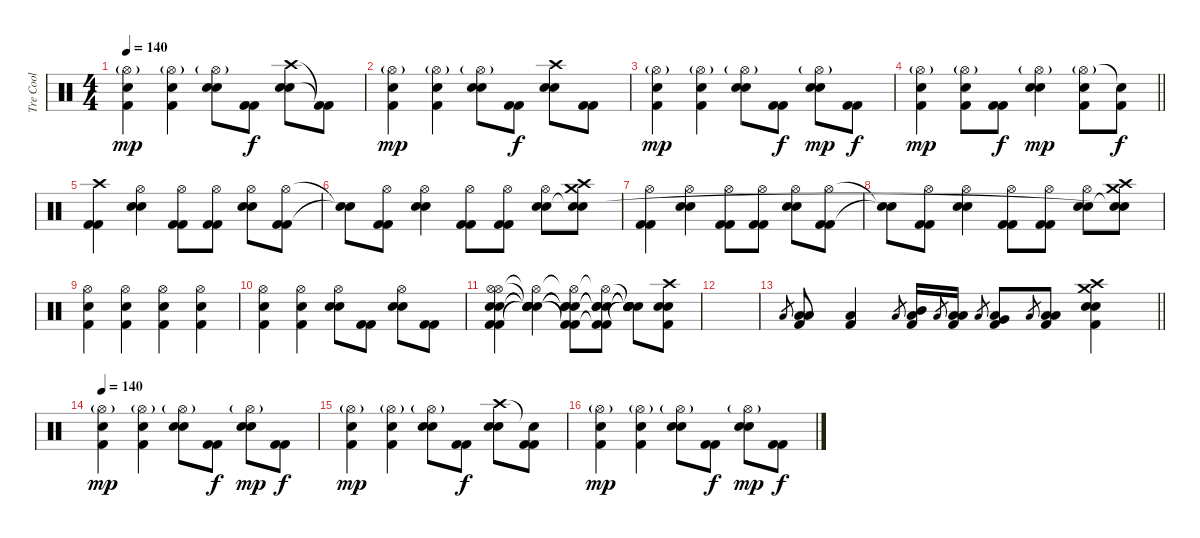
\track ("Tre Cool" "Tre Cool") {instrument percussion}
\staff {score}
\articulation defaults
\ts (4 4)
\tempo 140
\clef neutral
\ks c
("Hi-Hat (open)"{g} "Electric Snare (hit)" "Kick (hit) 2").4{dy mp} ("Hi-Hat (open)"{g} "Electric Snare (hit)" "Kick (hit) 2").4 ("Hi-Hat (open)"{g} "Electric Snare (hit)" "Electric Snare (hit)").8 ("Kick (hit) 2" "Kick (hit) 2").8{dy f} ("Crash high (hit)" "Electric Snare (hit)" "Electric Snare (hit)").8 ("Kick (hit) 2"{t} "Kick (hit) 2"{t}).8 |
("Hi-Hat (open)"{g} "Electric Snare (hit)" "Kick (hit) 2").4{dy mp} ("Hi-Hat (open)"{g} "Electric Snare (hit)" "Kick (hit) 2").4 ("Hi-Hat (open)"{g} "Electric Snare (hit)" "Electric Snare (hit)").8 ("Kick (hit) 2" "Kick (hit) 2").8{dy f} ("Crash high (hit)" "Electric Snare (hit)" "Electric Snare (hit)").8 ("Kick (hit) 2" "Kick (hit) 2").8 |
("Hi-Hat (open)"{g} "Electric Snare (hit)" "Kick (hit) 2").4{dy mp} ("Hi-Hat (open)"{g} "Electric Snare (hit)" "Kick (hit) 2").4 ("Hi-Hat (open)"{g} "Electric Snare (hit)" "Electric Snare (hit)").8 ("Kick (hit) 2" "Kick (hit) 2").8{dy f} ("Hi-Hat (open)"{g} "Electric Snare (hit)" "Electric Snare (hit)").8{dy mp} ("Kick (hit) 2" "Kick (hit) 2").8{dy f} |
\barLineRight lightlight
("Hi-Hat (open)"{g} "Electric Snare (hit)" "Kick (hit) 2").4{dy mp} ("Hi-Hat (open)"{g} "Electric Snare (hit)" "Kick (hit) 2").8 ("Kick (hit) 2" "Kick (hit) 2").8{dy f} ("Hi-Hat (open)"{g} "Electric Snare (hit)" "Electric Snare (hit)").4{dy mp} ("Hi-Hat (open)"{g} "Electric Snare (hit)"{tr (38 64)} "Kick (hit) 2").8 ("Electric Snare (hit)"{t} "Kick (hit) 2").8{dy f} |
("Crash high (hit)" "Kick (hit) 2" "Kick (hit) 2").4 ("Hi-Hat (open)" "Electric Snare (hit)" "Electric Snare (hit)").4 ("Hi-Hat (open)" "Kick (hit) 2" "Kick (hit) 2").8 ("Hi-Hat (open)" "Kick (hit) 2" "Kick (hit) 2").8 ("Hi-Hat (open)" "Electric Snare (hit)" "Electric Snare (hit)").8 ("Hi-Hat (open)" "Kick (hit) 2" "Kick (hit) 2").8 |
("Snare (hit)"{t} "Snare (hit)"{t}).8 ("Hi-Hat (open)" "Kick (hit) 2" "Kick (hit) 2").8 ("Hi-Hat (open)" "Electric Snare (hit)" "Electric Snare (hit)").4 ("Hi-Hat (open)" "Kick (hit) 2" "Kick (hit) 2").8 ("Hi-Hat (open)" "Kick (hit) 2" "Kick (hit) 2").8 ("Hi-Hat (open)" "Electric Snare (hit)" "Electric Snare (hit)").8 ("Crash high (hit)" "Crash medium (hit)" "Snare (hit)"{t} "Snare (hit)").8 |
("Hi-Hat (open)" "Kick (hit) 2" "Kick (hit) 2").4 ("Hi-Hat (open)" "Electric Snare (hit)" "Electric Snare (hit)").4 ("Hi-Hat (open)" "Kick (hit) 2" "Kick (hit) 2").8 ("Hi-Hat (open)" "Kick (hit) 2" "Kick (hit) 2").8 ("Hi-Hat (open)" "Electric Snare (hit)" "Electric Snare (hit)").8 ("Hi-Hat (open)" "Kick (hit) 2" "Kick (hit) 2").8 |
("Snare (hit)"{t} "Snare (hit)"{t}).8 ("Hi-Hat (open)" "Kick (hit) 2" "Kick (hit) 2").8 ("Hi-Hat (open)" "Electric Snare (hit)" "Electric Snare (hit)").4 ("Hi-Hat (open)" "Kick (hit) 2" "Kick (hit) 2").8 ("Hi-Hat (open)" "Kick (hit) 2" "Kick (hit) 2").8 ("Hi-Hat (open)" "Electric Snare (hit)" "Electric Snare (hit)").8 ("Crash high (hit)" "Crash medium (hit)" "Snare (hit)"{t} "Snare (hit)"{t}).8 |
("Hi-Hat (open)" "Electric Snare (hit)" "Kick (hit) 2").4 ("Hi-Hat (open)" "Electric Snare (hit)" "Kick (hit) 2").4 ("Hi-Hat (open)" "Electric Snare (hit)" "Kick (hit) 2").4 ("Hi-Hat (open)" "Electric Snare (hit)" "Kick (hit) 2").4 |
("Hi-Hat (open)" "Electric Snare (hit)" "Kick (hit) 2").4 ("Hi-Hat (open)" "Electric Snare (hit)" "Kick (hit) 2").4 ("Hi-Hat (open)" "Electric Snare (hit)" "Electric Snare (hit)").8 ("Kick (hit) 2" "Kick (hit) 2").8 ("Hi-Hat (open)" "Electric Snare (hit)" "Electric Snare (hit)").8 ("Kick (hit) 2" "Kick (hit) 2").8 |
("Hi-Hat (open)" "Hi-Hat (open)" "Electric Snare (hit)" "Electric Snare (hit)" "Kick (hit) 2" "Kick (hit) 2").4 ("Hi-Hat (open)"{t} "Snare (hit)"{t} "Snare (hit)"{t} "Snare (hit)"{t} "Electric Snare (hit)"{t} "Electric Snare (hit)"{t}).4 ("Hi-Hat (open)"{t} "Snare (hit)"{t} "Snare (hit)"{t} "Snare (hit)"{t} "Kick (hit) 2"{t} "Kick (hit) 2"{t}).8 ("Hi-Hat (open)"{t} "Snare (hit)"{t} "Snare (hit)"{t} "Snare (hit)"{t} "Kick (hit) 2"{t} "Kick (hit) 2"{t}).8 ("Snare (hit)"{t} "Snare (hit)"{t} "Snare (hit)"{t} "Snare (hit)"{t} "Snare (hit)"{t} "Snare (hit)"{t}).8 ("Crash high (hit)" "Electric Snare (hit)" "Electric Snare (hit)" "Kick (hit) 2").8 |
|
\barLineRight lightlight "Low Tom (hit)".8{gr}
("Low Tom (hit)" "Low Tom (hit)" "Kick (hit) 2").8 ("Low Floor Tom (hit)" "Kick (hit) 2").4 "Low Tom (hit)".8{gr} ("Mid Tom (hit)" "Low Tom (hit)" "Kick (hit) 2").16 "Low Tom (hit)".8{gr} ("Low Tom (hit)" "Low Tom (hit)" "Kick (hit) 2").16 "Low Tom (hit)".8{gr} ("Very Low Tom (hit)" "Low Tom (hit)" "Kick (hit) 2").8 "Low Tom (hit)".8{gr} ("Low Floor Tom (hit)" "Low Tom (hit)" "Kick (hit) 2").8 ("Crash high (hit)" "Electric Snare (hit)" "Electric Snare (hit)" "Crash medium (hit)" "Kick (hit) 2").4 |
\tempo 140
("Hi-Hat (open)"{g} "Electric Snare (hit)" "Kick (hit) 2").4{dy mp} ("Hi-Hat (open)"{g} "Electric Snare (hit)" "Kick (hit) 2").4 ("Hi-Hat (open)"{g} "Electric Snare (hit)" "Electric Snare (hit)").8 ("Kick (hit) 2" "Kick (hit) 2").8{dy f} ("Hi-Hat (open)"{g} "Electric Snare (hit)" "Electric Snare (hit)").8{dy mp} ("Kick (hit) 2" "Kick (hit) 2").8{dy f} |
("Hi-Hat (open)"{g} "Electric Snare (hit)" "Kick (hit) 2").4{dy mp} ("Hi-Hat (open)"{g} "Electric Snare (hit)" "Kick (hit) 2").4 ("Hi-Hat (open)"{g} "Electric Snare (hit)" "Electric Snare (hit)").8 ("Kick (hit) 2" "Kick (hit) 2").8{dy f} ("Crash high (hit)" "Electric Snare (hit)" "Electric Snare (hit)").8 ("Snare (hit)"{t} "Kick (hit) 2" "Kick (hit) 2").8 |
("Hi-Hat (open)"{g} "Electric Snare (hit)" "Kick (hit) 2").4{dy mp} ("Hi-Hat (open)"{g} "Electric Snare (hit)" "Kick (hit) 2").4 ("Hi-Hat (open)"{g} "Electric Snare (hit)" "Electric Snare (hit)").8 ("Kick (hit) 2" "Kick (hit) 2").8{dy f} ("Hi-Hat (open)"{g} "Electric Snare (hit)" "Electric Snare (hit)").8{dy mp} ("Kick (hit) 2" "Kick (hit) 2").8{dy f}
